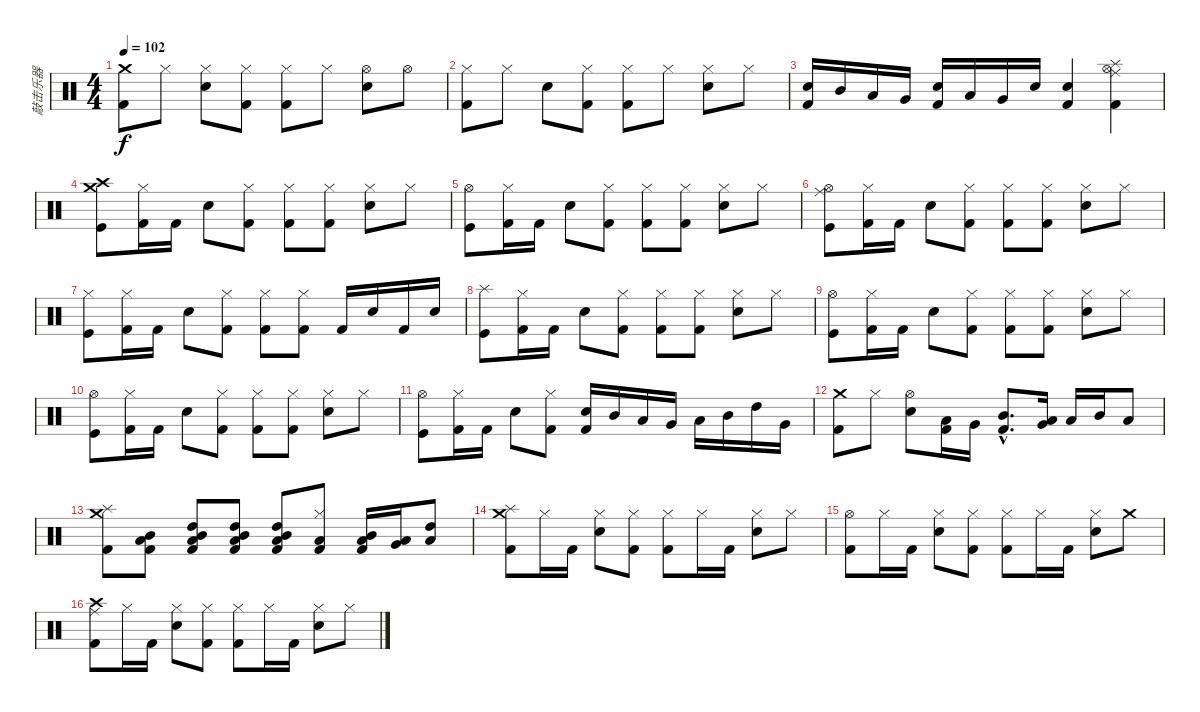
\track ("敲击乐器" "敲击乐器") {instrument percussion}
\staff {score}
\articulation defaults
\ts (4 4)
\tempo 102
\clef neutral
\ks c
("Crash medium (hit)" "Kick (hit) 2").8{dy f} "Hi-Hat (closed)".8 ("Hi-Hat (closed)" "Electric Snare (hit)").8 ("Hi-Hat (closed)" "Kick (hit) 2").8 ("Hi-Hat (closed)" "Kick (hit) 2").8 "Hi-Hat (closed)".8 ("Hi-Hat (open)" "Electric Snare (hit)").8 "Hi-Hat (open)".8 |
("Hi-Hat (closed)" "Kick (hit) 2").8 "Hi-Hat (closed)".8 "Electric Snare (hit)".8 ("Hi-Hat (closed)" "Kick (hit) 2").8 ("Hi-Hat (closed)" "Kick (hit) 2").8 "Hi-Hat (closed)".8 ("Hi-Hat (closed)" "Electric Snare (hit)").8 "Hi-Hat (closed)".8 |
("Electric Snare (hit)" "Kick (hit) 2").16 "Mid Tom (hit)".16 "Low Tom (hit)".16 "Very Low Tom (hit)".16 ("Electric Snare (hit)" "Kick (hit) 2").16 "Low Tom (hit)".16 "Very Low Tom (hit)".16 "Electric Snare (hit)".16 ("Electric Snare (hit)" "Kick (hit) 2").4 ("Splash (hit)" "Ride (middle)" "Hi-Hat (open)" "Kick (hit) 2").4 |
("Crash medium (hit)" "Crash high (hit)" "Kick (hit)").8 ("Hi-Hat (closed)" "Kick (hit) 2").16 "Kick (hit) 2".16 "Electric Snare (hit)".8 ("Hi-Hat (closed)" "Kick (hit) 2").8 ("Hi-Hat (closed)" "Kick (hit) 2").8 ("Hi-Hat (closed)" "Kick (hit) 2").8 ("Hi-Hat (closed)" "Electric Snare (hit)").8 "Hi-Hat (closed)".8 |
("Hi-Hat (open)" "Kick (hit)").8 ("Hi-Hat (closed)" "Kick (hit) 2").16 "Kick (hit) 2".16 "Electric Snare (hit)".8 ("Hi-Hat (closed)" "Kick (hit) 2").8 ("Hi-Hat (closed)" "Kick (hit) 2").8 ("Hi-Hat (closed)" "Kick (hit) 2").8 ("Hi-Hat (closed)" "Electric Snare (hit)").8 "Hi-Hat (closed)".8 |
("Ride (middle)" "Hi-Hat (open)" "Kick (hit)").8 ("Hi-Hat (closed)" "Kick (hit) 2").16 "Kick (hit) 2".16 "Electric Snare (hit)".8 ("Hi-Hat (closed)" "Kick (hit) 2").8 ("Hi-Hat (closed)" "Kick (hit) 2").8 ("Hi-Hat (closed)" "Kick (hit) 2").8 ("Hi-Hat (closed)" "Electric Snare (hit)").8 "Hi-Hat (closed)".8 |
("Hi-Hat (closed)" "Kick (hit)").8 ("Hi-Hat (closed)" "Kick (hit) 2").16 "Kick (hit) 2".16 "Electric Snare (hit)".8 ("Hi-Hat (closed)" "Kick (hit) 2").8 ("Hi-Hat (closed)" "Kick (hit) 2").8 ("Hi-Hat (closed)" "Kick (hit) 2").8 "Kick (hit) 2".16 "Electric Snare (hit)".16 "Kick (hit) 2".16 "Electric Snare (hit)".16 |
("Splash (hit)" "Kick (hit)").8 ("Hi-Hat (closed)" "Kick (hit) 2").16 "Kick (hit) 2".16 "Electric Snare (hit)".8 ("Hi-Hat (closed)" "Kick (hit) 2").8 ("Hi-Hat (closed)" "Kick (hit) 2").8 ("Hi-Hat (closed)" "Kick (hit) 2").8 ("Hi-Hat (closed)" "Electric Snare (hit)").8 "Hi-Hat (closed)".8 |
("Hi-Hat (open)" "Kick (hit)").8 ("Hi-Hat (closed)" "Kick (hit) 2").16 "Kick (hit) 2".16 "Electric Snare (hit)".8 ("Hi-Hat (closed)" "Kick (hit) 2").8 ("Hi-Hat (closed)" "Kick (hit) 2").8 ("Hi-Hat (closed)" "Kick (hit) 2").8 ("Hi-Hat (closed)" "Electric Snare (hit)").8 "Hi-Hat (closed)".8 |
("Hi-Hat (open)" "Kick (hit)").8 ("Hi-Hat (closed)" "Kick (hit) 2").16 "Kick (hit) 2".16 "Electric Snare (hit)".8 ("Hi-Hat (closed)" "Kick (hit) 2").8 ("Hi-Hat (closed)" "Kick (hit) 2").8 ("Hi-Hat (closed)" "Kick (hit) 2").8 ("Hi-Hat (closed)" "Electric Snare (hit)").8 "Hi-Hat (closed)".8 |
("Hi-Hat (open)" "Kick (hit)").8 ("Hi-Hat (closed)" "Kick (hit) 2").16 "Kick (hit) 2".16 "Electric Snare (hit)".8 ("Hi-Hat (closed)" "Kick (hit) 2").8 ("Electric Snare (hit)" "Kick (hit) 2").16 "Mid Tom (hit)".16 "Low Tom (hit)".16 "Very Low Tom (hit)".16 "Low Tom (hit)".16 "Mid Tom (hit)".16 "High Tom (hit)".16 "Very Low Tom (hit)".16 |
("Crash medium (hit)" "Kick (hit) 2").8 "Hi-Hat (closed)".8 ("Hi-Hat (open)" "Electric Snare (hit)").8 ("Low Tom (hit)" "Kick (hit) 2").16 "Very Low Tom (hit)".16 ("Mid Tom (hit)"{hac} "Kick (hit) 2"{hac}).8{d} ("Very Low Tom (hit)" "Low Tom (hit)").16 "Low Tom (hit)".16 "Mid Tom (hit)".16 "Low Floor Tom (hit)".8 |
("Splash (hit)" "Crash medium (hit)" "Kick (hit) 2").8 ("Mid Tom (hit)" "Low Tom (hit)" "Kick (hit) 2").8 ("Mid Tom (hit)" "High Tom (hit)" "Low Tom (hit)" "Kick (hit) 2").8 ("Mid Tom (hit)" "High Tom (hit)" "Low Tom (hit)" "Kick (hit) 2").8 ("Mid Tom (hit)" "High Tom (hit)" "Low Tom (hit)" "Kick (hit) 2").8 ("Hi-Hat (closed)" "Low Tom (hit)" "Kick (hit) 2").8 ("Mid Tom (hit)" "Low Tom (hit)" "Kick (hit) 2").16 ("Low Tom (hit)" "Very Low Tom (hit)").16 ("High Tom (hit)" "Low Floor Tom (hit)").8 |
("Splash (hit)" "Crash medium (hit)" "Kick (hit) 2").8 "Hi-Hat (closed)".16 "Kick (hit) 2".16 ("Hi-Hat (closed)" "Electric Snare (hit)").8 ("Hi-Hat (closed)" "Kick (hit) 2").8 ("Hi-Hat (closed)" "Kick (hit) 2").8 "Hi-Hat (closed)".16 "Kick (hit) 2".16 ("Hi-Hat (closed)" "Electric Snare (hit)").8 "Hi-Hat (closed)".8 |
("Hi-Hat (open)" "Kick (hit) 2").8 "Hi-Hat (closed)".16 "Kick (hit) 2".16 ("Hi-Hat (closed)" "Electric Snare (hit)").8 ("Hi-Hat (closed)" "Kick (hit) 2").8 ("Hi-Hat (closed)" "Kick (hit) 2").8 "Hi-Hat (closed)".16 "Kick (hit) 2".16 ("Hi-Hat (closed)" "Electric Snare (hit)").8 "Crash medium (hit)".8 |
("Ride (middle)" "Crash high (hit)" "Kick (hit) 2").8 "Hi-Hat (closed)".16 "Kick (hit) 2".16 ("Hi-Hat (closed)" "Electric Snare (hit)").8 ("Hi-Hat (closed)" "Kick (hit) 2").8 ("Hi-Hat (closed)" "Kick (hit) 2").8 "Hi-Hat (closed)".16 "Kick (hit) 2".16 ("Hi-Hat (closed)" "Electric Snare (hit)").8 "Hi-Hat (closed)".8
